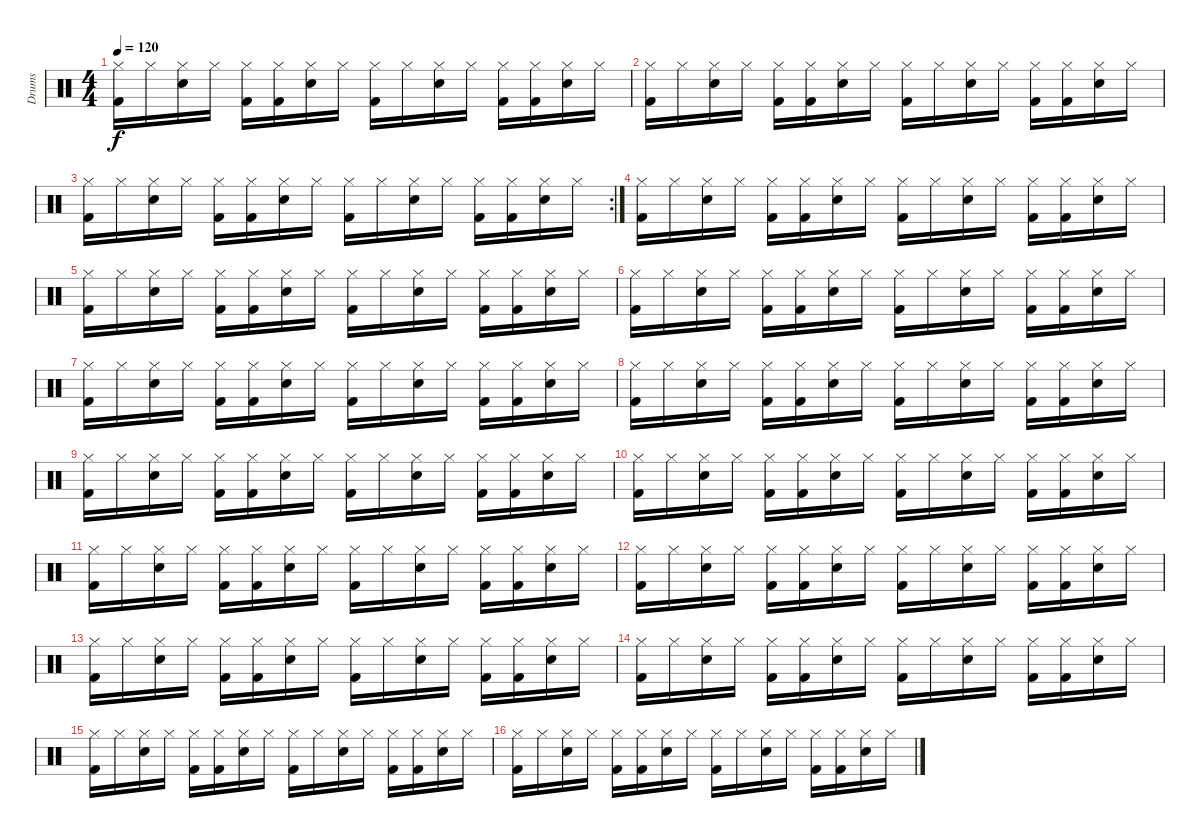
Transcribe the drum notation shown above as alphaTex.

\track ("Drums" "Drums") {instrument percussion}
\staff {score}
\articulation defaults
\ts (4 4)
\tempo 120
\clef neutral
\ks c
("Hi-Hat (closed)" "Kick (hit) 2").16{dy f} "Hi-Hat (closed)".16 ("Electric Snare (hit)" "Hi-Hat (closed)").16 "Hi-Hat (closed)".16 ("Hi-Hat (closed)" "Kick (hit) 2").16 ("Hi-Hat (closed)" "Kick (hit) 2").16 ("Electric Snare (hit)" "Hi-Hat (closed)").16 "Hi-Hat (closed)".16 ("Hi-Hat (closed)" "Kick (hit) 2").16 "Hi-Hat (closed)".16 ("Electric Snare (hit)" "Hi-Hat (closed)").16 "Hi-Hat (closed)".16 ("Hi-Hat (closed)" "Kick (hit) 2").16 ("Hi-Hat (closed)" "Kick (hit) 2").16 ("Electric Snare (hit)" "Hi-Hat (closed)").16 "Hi-Hat (closed)".16 |
("Hi-Hat (closed)" "Kick (hit) 2").16 "Hi-Hat (closed)".16 ("Electric Snare (hit)" "Hi-Hat (closed)").16 "Hi-Hat (closed)".16 ("Hi-Hat (closed)" "Kick (hit) 2").16 ("Hi-Hat (closed)" "Kick (hit) 2").16 ("Electric Snare (hit)" "Hi-Hat (closed)").16 "Hi-Hat (closed)".16 ("Hi-Hat (closed)" "Kick (hit) 2").16 "Hi-Hat (closed)".16 ("Electric Snare (hit)" "Hi-Hat (closed)").16 "Hi-Hat (closed)".16 ("Hi-Hat (closed)" "Kick (hit) 2").16 ("Hi-Hat (closed)" "Kick (hit) 2").16 ("Electric Snare (hit)" "Hi-Hat (closed)").16 "Hi-Hat (closed)".16 |
\rc 2
("Hi-Hat (closed)" "Kick (hit) 2").16 "Hi-Hat (closed)".16 ("Electric Snare (hit)" "Hi-Hat (closed)").16 "Hi-Hat (closed)".16 ("Hi-Hat (closed)" "Kick (hit) 2").16 ("Hi-Hat (closed)" "Kick (hit) 2").16 ("Electric Snare (hit)" "Hi-Hat (closed)").16 "Hi-Hat (closed)".16 ("Hi-Hat (closed)" "Kick (hit) 2").16 "Hi-Hat (closed)".16 ("Electric Snare (hit)" "Hi-Hat (closed)").16 "Hi-Hat (closed)".16 ("Hi-Hat (closed)" "Kick (hit) 2").16 ("Hi-Hat (closed)" "Kick (hit) 2").16 ("Electric Snare (hit)" "Hi-Hat (closed)").16 "Hi-Hat (closed)".16 |
("Hi-Hat (closed)" "Kick (hit) 2").16 "Hi-Hat (closed)".16 ("Electric Snare (hit)" "Hi-Hat (closed)").16 "Hi-Hat (closed)".16 ("Hi-Hat (closed)" "Kick (hit) 2").16 ("Hi-Hat (closed)" "Kick (hit) 2").16 ("Electric Snare (hit)" "Hi-Hat (closed)").16 "Hi-Hat (closed)".16 ("Hi-Hat (closed)" "Kick (hit) 2").16 "Hi-Hat (closed)".16 ("Electric Snare (hit)" "Hi-Hat (closed)").16 "Hi-Hat (closed)".16 ("Hi-Hat (closed)" "Kick (hit) 2").16 ("Hi-Hat (closed)" "Kick (hit) 2").16 ("Electric Snare (hit)" "Hi-Hat (closed)").16 "Hi-Hat (closed)".16 |
("Hi-Hat (closed)" "Kick (hit) 2").16 "Hi-Hat (closed)".16 ("Electric Snare (hit)" "Hi-Hat (closed)").16 "Hi-Hat (closed)".16 ("Hi-Hat (closed)" "Kick (hit) 2").16 ("Hi-Hat (closed)" "Kick (hit) 2").16 ("Electric Snare (hit)" "Hi-Hat (closed)").16 "Hi-Hat (closed)".16 ("Hi-Hat (closed)" "Kick (hit) 2").16 "Hi-Hat (closed)".16 ("Electric Snare (hit)" "Hi-Hat (closed)").16 "Hi-Hat (closed)".16 ("Hi-Hat (closed)" "Kick (hit) 2").16 ("Hi-Hat (closed)" "Kick (hit) 2").16 ("Electric Snare (hit)" "Hi-Hat (closed)").16 "Hi-Hat (closed)".16 |
("Hi-Hat (closed)" "Kick (hit) 2").16 "Hi-Hat (closed)".16 ("Electric Snare (hit)" "Hi-Hat (closed)").16 "Hi-Hat (closed)".16 ("Hi-Hat (closed)" "Kick (hit) 2").16 ("Hi-Hat (closed)" "Kick (hit) 2").16 ("Electric Snare (hit)" "Hi-Hat (closed)").16 "Hi-Hat (closed)".16 ("Hi-Hat (closed)" "Kick (hit) 2").16 "Hi-Hat (closed)".16 ("Electric Snare (hit)" "Hi-Hat (closed)").16 "Hi-Hat (closed)".16 ("Hi-Hat (closed)" "Kick (hit) 2").16 ("Hi-Hat (closed)" "Kick (hit) 2").16 ("Electric Snare (hit)" "Hi-Hat (closed)").16 "Hi-Hat (closed)".16 |
("Hi-Hat (closed)" "Kick (hit) 2").16 "Hi-Hat (closed)".16 ("Electric Snare (hit)" "Hi-Hat (closed)").16 "Hi-Hat (closed)".16 ("Hi-Hat (closed)" "Kick (hit) 2").16 ("Hi-Hat (closed)" "Kick (hit) 2").16 ("Electric Snare (hit)" "Hi-Hat (closed)").16 "Hi-Hat (closed)".16 ("Hi-Hat (closed)" "Kick (hit) 2").16 "Hi-Hat (closed)".16 ("Electric Snare (hit)" "Hi-Hat (closed)").16 "Hi-Hat (closed)".16 ("Hi-Hat (closed)" "Kick (hit) 2").16 ("Hi-Hat (closed)" "Kick (hit) 2").16 ("Electric Snare (hit)" "Hi-Hat (closed)").16 "Hi-Hat (closed)".16 |
("Hi-Hat (closed)" "Kick (hit) 2").16 "Hi-Hat (closed)".16 ("Electric Snare (hit)" "Hi-Hat (closed)").16 "Hi-Hat (closed)".16 ("Hi-Hat (closed)" "Kick (hit) 2").16 ("Hi-Hat (closed)" "Kick (hit) 2").16 ("Electric Snare (hit)" "Hi-Hat (closed)").16 "Hi-Hat (closed)".16 ("Hi-Hat (closed)" "Kick (hit) 2").16 "Hi-Hat (closed)".16 ("Electric Snare (hit)" "Hi-Hat (closed)").16 "Hi-Hat (closed)".16 ("Hi-Hat (closed)" "Kick (hit) 2").16 ("Hi-Hat (closed)" "Kick (hit) 2").16 ("Electric Snare (hit)" "Hi-Hat (closed)").16 "Hi-Hat (closed)".16 |
("Hi-Hat (closed)" "Kick (hit) 2").16 "Hi-Hat (closed)".16 ("Electric Snare (hit)" "Hi-Hat (closed)").16 "Hi-Hat (closed)".16 ("Hi-Hat (closed)" "Kick (hit) 2").16 ("Hi-Hat (closed)" "Kick (hit) 2").16 ("Electric Snare (hit)" "Hi-Hat (closed)").16 "Hi-Hat (closed)".16 ("Hi-Hat (closed)" "Kick (hit) 2").16 "Hi-Hat (closed)".16 ("Electric Snare (hit)" "Hi-Hat (closed)").16 "Hi-Hat (closed)".16 ("Hi-Hat (closed)" "Kick (hit) 2").16 ("Hi-Hat (closed)" "Kick (hit) 2").16 ("Electric Snare (hit)" "Hi-Hat (closed)").16 "Hi-Hat (closed)".16 |
("Hi-Hat (closed)" "Kick (hit) 2").16 "Hi-Hat (closed)".16 ("Electric Snare (hit)" "Hi-Hat (closed)").16 "Hi-Hat (closed)".16 ("Hi-Hat (closed)" "Kick (hit) 2").16 ("Hi-Hat (closed)" "Kick (hit) 2").16 ("Electric Snare (hit)" "Hi-Hat (closed)").16 "Hi-Hat (closed)".16 ("Hi-Hat (closed)" "Kick (hit) 2").16 "Hi-Hat (closed)".16 ("Electric Snare (hit)" "Hi-Hat (closed)").16 "Hi-Hat (closed)".16 ("Hi-Hat (closed)" "Kick (hit) 2").16 ("Hi-Hat (closed)" "Kick (hit) 2").16 ("Electric Snare (hit)" "Hi-Hat (closed)").16 "Hi-Hat (closed)".16 |
("Hi-Hat (closed)" "Kick (hit) 2").16 "Hi-Hat (closed)".16 ("Electric Snare (hit)" "Hi-Hat (closed)").16 "Hi-Hat (closed)".16 ("Hi-Hat (closed)" "Kick (hit) 2").16 ("Hi-Hat (closed)" "Kick (hit) 2").16 ("Electric Snare (hit)" "Hi-Hat (closed)").16 "Hi-Hat (closed)".16 ("Hi-Hat (closed)" "Kick (hit) 2").16 "Hi-Hat (closed)".16 ("Electric Snare (hit)" "Hi-Hat (closed)").16 "Hi-Hat (closed)".16 ("Hi-Hat (closed)" "Kick (hit) 2").16 ("Hi-Hat (closed)" "Kick (hit) 2").16 ("Electric Snare (hit)" "Hi-Hat (closed)").16 "Hi-Hat (closed)".16 |
("Hi-Hat (closed)" "Kick (hit) 2").16 "Hi-Hat (closed)".16 ("Electric Snare (hit)" "Hi-Hat (closed)").16 "Hi-Hat (closed)".16 ("Hi-Hat (closed)" "Kick (hit) 2").16 ("Hi-Hat (closed)" "Kick (hit) 2").16 ("Electric Snare (hit)" "Hi-Hat (closed)").16 "Hi-Hat (closed)".16 ("Hi-Hat (closed)" "Kick (hit) 2").16 "Hi-Hat (closed)".16 ("Electric Snare (hit)" "Hi-Hat (closed)").16 "Hi-Hat (closed)".16 ("Hi-Hat (closed)" "Kick (hit) 2").16 ("Hi-Hat (closed)" "Kick (hit) 2").16 ("Electric Snare (hit)" "Hi-Hat (closed)").16 "Hi-Hat (closed)".16 |
("Hi-Hat (closed)" "Kick (hit) 2").16 "Hi-Hat (closed)".16 ("Electric Snare (hit)" "Hi-Hat (closed)").16 "Hi-Hat (closed)".16 ("Hi-Hat (closed)" "Kick (hit) 2").16 ("Hi-Hat (closed)" "Kick (hit) 2").16 ("Electric Snare (hit)" "Hi-Hat (closed)").16 "Hi-Hat (closed)".16 ("Hi-Hat (closed)" "Kick (hit) 2").16 "Hi-Hat (closed)".16 ("Electric Snare (hit)" "Hi-Hat (closed)").16 "Hi-Hat (closed)".16 ("Hi-Hat (closed)" "Kick (hit) 2").16 ("Hi-Hat (closed)" "Kick (hit) 2").16 ("Electric Snare (hit)" "Hi-Hat (closed)").16 "Hi-Hat (closed)".16 |
("Hi-Hat (closed)" "Kick (hit) 2").16 "Hi-Hat (closed)".16 ("Electric Snare (hit)" "Hi-Hat (closed)").16 "Hi-Hat (closed)".16 ("Hi-Hat (closed)" "Kick (hit) 2").16 ("Hi-Hat (closed)" "Kick (hit) 2").16 ("Electric Snare (hit)" "Hi-Hat (closed)").16 "Hi-Hat (closed)".16 ("Hi-Hat (closed)" "Kick (hit) 2").16 "Hi-Hat (closed)".16 ("Electric Snare (hit)" "Hi-Hat (closed)").16 "Hi-Hat (closed)".16 ("Hi-Hat (closed)" "Kick (hit) 2").16 ("Hi-Hat (closed)" "Kick (hit) 2").16 ("Electric Snare (hit)" "Hi-Hat (closed)").16 "Hi-Hat (closed)".16 |
("Hi-Hat (closed)" "Kick (hit) 2").16 "Hi-Hat (closed)".16 ("Electric Snare (hit)" "Hi-Hat (closed)").16 "Hi-Hat (closed)".16 ("Hi-Hat (closed)" "Kick (hit) 2").16 ("Hi-Hat (closed)" "Kick (hit) 2").16 ("Electric Snare (hit)" "Hi-Hat (closed)").16 "Hi-Hat (closed)".16 ("Hi-Hat (closed)" "Kick (hit) 2").16 "Hi-Hat (closed)".16 ("Electric Snare (hit)" "Hi-Hat (closed)").16 "Hi-Hat (closed)".16 ("Hi-Hat (closed)" "Kick (hit) 2").16 ("Hi-Hat (closed)" "Kick (hit) 2").16 ("Electric Snare (hit)" "Hi-Hat (closed)").16 "Hi-Hat (closed)".16 |
("Hi-Hat (closed)" "Kick (hit) 2").16 "Hi-Hat (closed)".16 ("Electric Snare (hit)" "Hi-Hat (closed)").16 "Hi-Hat (closed)".16 ("Hi-Hat (closed)" "Kick (hit) 2").16 ("Hi-Hat (closed)" "Kick (hit) 2").16 ("Electric Snare (hit)" "Hi-Hat (closed)").16 "Hi-Hat (closed)".16 ("Hi-Hat (closed)" "Kick (hit) 2").16 "Hi-Hat (closed)".16 ("Electric Snare (hit)" "Hi-Hat (closed)").16 "Hi-Hat (closed)".16 ("Hi-Hat (closed)" "Kick (hit) 2").16 ("Hi-Hat (closed)" "Kick (hit) 2").16 ("Electric Snare (hit)" "Hi-Hat (closed)").16 "Hi-Hat (closed)".16
